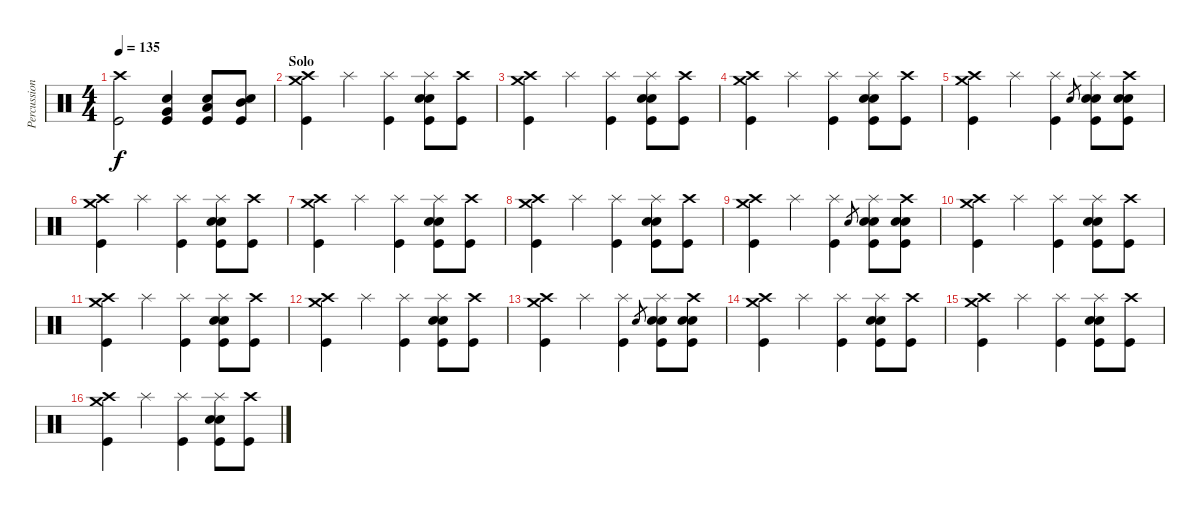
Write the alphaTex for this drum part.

\track ("Percussions" "Percussion") {instrument percussion}
\staff {score}
\articulation defaults
\ts (4 4)
\tempo 135
\clef neutral
\ks c
("Crash high (hit)" "Kick (hit)").2{dy f} ("Electric Snare (hit)" "Very Low Tom (hit)" "Kick (hit)").4 ("Electric Snare (hit)" "Low Tom (hit)" "Kick (hit)").8 ("Electric Snare (hit)" "Mid Tom (hit)" "Kick (hit)").8 |
\section ("" "Solo")
("Crash high (hit)" "Crash medium (hit)" "Kick (hit)").4 "Splash (hit)".4 ("Splash (hit)" "Kick (hit)").4 ("Splash (hit)" "Electric Snare (hit)" "Snare (hit) 2" "Kick (hit)").8 ("Crash high (hit)" "Kick (hit)").8 |
("Crash high (hit)" "Crash medium (hit)" "Kick (hit)").4 "Splash (hit)".4 ("Splash (hit)" "Kick (hit)").4 ("Splash (hit)" "Electric Snare (hit)" "Snare (hit) 2" "Kick (hit)").8 ("Crash high (hit)" "Kick (hit)").8 |
("Crash high (hit)" "Crash medium (hit)" "Kick (hit)").4 "Splash (hit)".4 ("Splash (hit)" "Kick (hit)").4 ("Splash (hit)" "Electric Snare (hit)" "Snare (hit) 2" "Kick (hit)").8 ("Crash high (hit)" "Kick (hit)").8 |
("Crash high (hit)" "Crash medium (hit)" "Kick (hit)").4 "Splash (hit)".4 ("Splash (hit)" "Kick (hit)").4 "Electric Snare (hit)".8{gr} ("Splash (hit)" "Electric Snare (hit)" "Snare (hit) 2" "Kick (hit)").8 ("Crash high (hit)" "Electric Snare (hit)" "Snare (hit) 2" "Kick (hit)").8 |
("Crash high (hit)" "Crash medium (hit)" "Kick (hit)").4 "Splash (hit)".4 ("Splash (hit)" "Kick (hit)").4 ("Splash (hit)" "Electric Snare (hit)" "Snare (hit) 2" "Kick (hit)").8 ("Crash high (hit)" "Kick (hit)").8 |
("Crash high (hit)" "Crash medium (hit)" "Kick (hit)").4 "Splash (hit)".4 ("Splash (hit)" "Kick (hit)").4 ("Splash (hit)" "Electric Snare (hit)" "Snare (hit) 2" "Kick (hit)").8 ("Crash high (hit)" "Kick (hit)").8 |
("Crash high (hit)" "Crash medium (hit)" "Kick (hit)").4 "Splash (hit)".4 ("Splash (hit)" "Kick (hit)").4 ("Splash (hit)" "Electric Snare (hit)" "Snare (hit) 2" "Kick (hit)").8 ("Crash high (hit)" "Kick (hit)").8 |
("Crash high (hit)" "Crash medium (hit)" "Kick (hit)").4 "Splash (hit)".4 ("Splash (hit)" "Kick (hit)").4 "Electric Snare (hit)".8{gr} ("Splash (hit)" "Electric Snare (hit)" "Snare (hit) 2" "Kick (hit)").8 ("Crash high (hit)" "Electric Snare (hit)" "Snare (hit) 2" "Kick (hit)").8 |
("Crash high (hit)" "Crash medium (hit)" "Kick (hit)").4 "Splash (hit)".4 ("Splash (hit)" "Kick (hit)").4 ("Splash (hit)" "Electric Snare (hit)" "Snare (hit) 2" "Kick (hit)").8 ("Crash high (hit)" "Kick (hit)").8 |
("Crash high (hit)" "Crash medium (hit)" "Kick (hit)").4 "Splash (hit)".4 ("Splash (hit)" "Kick (hit)").4 ("Splash (hit)" "Electric Snare (hit)" "Snare (hit) 2" "Kick (hit)").8 ("Crash high (hit)" "Kick (hit)").8 |
("Crash high (hit)" "Crash medium (hit)" "Kick (hit)").4 "Splash (hit)".4 ("Splash (hit)" "Kick (hit)").4 ("Splash (hit)" "Electric Snare (hit)" "Snare (hit) 2" "Kick (hit)").8 ("Crash high (hit)" "Kick (hit)").8 |
("Crash high (hit)" "Crash medium (hit)" "Kick (hit)").4 "Splash (hit)".4 ("Splash (hit)" "Kick (hit)").4 "Electric Snare (hit)".8{gr} ("Splash (hit)" "Electric Snare (hit)" "Snare (hit) 2" "Kick (hit)").8 ("Crash high (hit)" "Electric Snare (hit)" "Snare (hit) 2" "Kick (hit)").8 |
("Crash high (hit)" "Crash medium (hit)" "Kick (hit)").4 "Splash (hit)".4 ("Splash (hit)" "Kick (hit)").4 ("Splash (hit)" "Electric Snare (hit)" "Snare (hit) 2" "Kick (hit)").8 ("Crash high (hit)" "Kick (hit)").8 |
("Crash high (hit)" "Crash medium (hit)" "Kick (hit)").4 "Splash (hit)".4 ("Splash (hit)" "Kick (hit)").4 ("Splash (hit)" "Electric Snare (hit)" "Snare (hit) 2" "Kick (hit)").8 ("Crash high (hit)" "Kick (hit)").8 |
("Crash high (hit)" "Crash medium (hit)" "Kick (hit)").4 "Splash (hit)".4 ("Splash (hit)" "Kick (hit)").4 ("Splash (hit)" "Electric Snare (hit)" "Snare (hit) 2" "Kick (hit)").8 ("Crash high (hit)" "Kick (hit)").8
